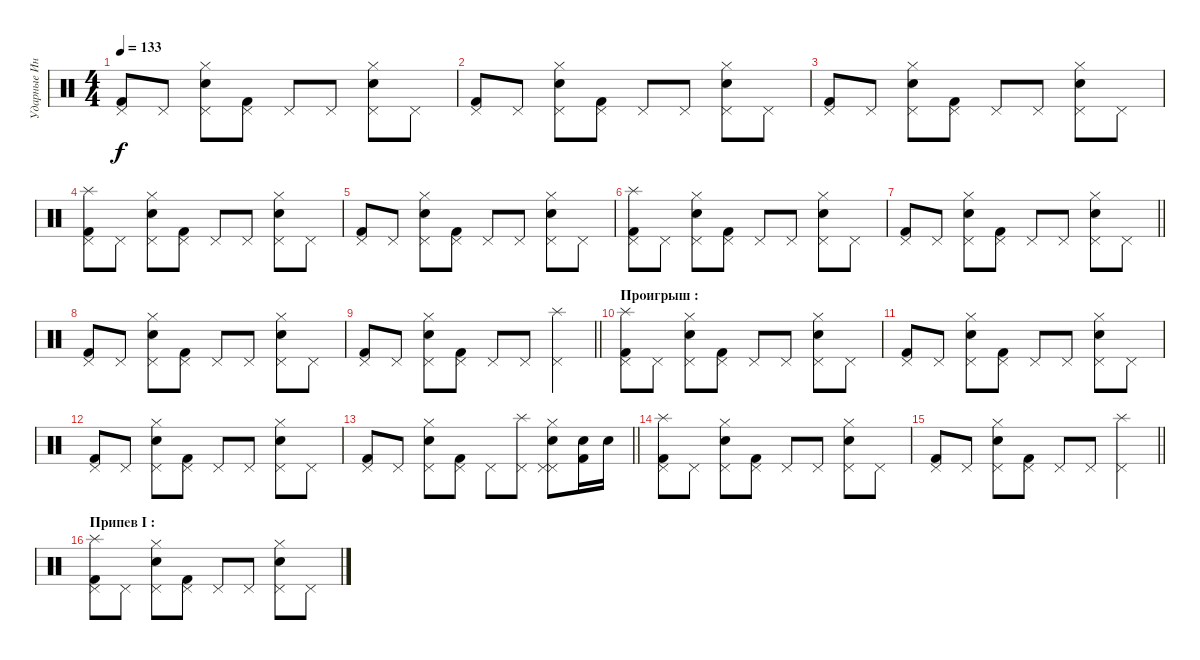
\track ("Ударные Инструменты" "Ударные Ин") {instrument percussion}
\staff {score}
\articulation defaults
\ts (4 4)
\tempo 133
\clef neutral
\ks c
("Pedal Hi-Hat (hit)" "Kick (hit) 2").8{dy f} "Pedal Hi-Hat (hit)".8 ("Electric Snare (hit)" "Pedal Hi-Hat (hit)" "Hi-Hat (closed)").8 ("Pedal Hi-Hat (hit)" "Kick (hit) 2").8 "Pedal Hi-Hat (hit)".8 "Pedal Hi-Hat (hit)".8 ("Electric Snare (hit)" "Pedal Hi-Hat (hit)" "Hi-Hat (closed)").8 "Pedal Hi-Hat (hit)".8 |
("Pedal Hi-Hat (hit)" "Kick (hit) 2").8 "Pedal Hi-Hat (hit)".8 ("Electric Snare (hit)" "Pedal Hi-Hat (hit)" "Hi-Hat (closed)").8 ("Pedal Hi-Hat (hit)" "Kick (hit) 2").8 "Pedal Hi-Hat (hit)".8 "Pedal Hi-Hat (hit)".8 ("Electric Snare (hit)" "Pedal Hi-Hat (hit)" "Hi-Hat (closed)").8 "Pedal Hi-Hat (hit)".8 |
("Pedal Hi-Hat (hit)" "Kick (hit) 2").8 "Pedal Hi-Hat (hit)".8 ("Electric Snare (hit)" "Pedal Hi-Hat (hit)" "Hi-Hat (closed)").8 ("Pedal Hi-Hat (hit)" "Kick (hit) 2").8 "Pedal Hi-Hat (hit)".8 "Pedal Hi-Hat (hit)".8 ("Electric Snare (hit)" "Pedal Hi-Hat (hit)" "Hi-Hat (closed)").8 "Pedal Hi-Hat (hit)".8 |
("Splash (hit)" "Pedal Hi-Hat (hit)" "Kick (hit) 2").8 "Pedal Hi-Hat (hit)".8 ("Electric Snare (hit)" "Pedal Hi-Hat (hit)" "Hi-Hat (closed)").8 ("Pedal Hi-Hat (hit)" "Kick (hit) 2").8 "Pedal Hi-Hat (hit)".8 "Pedal Hi-Hat (hit)".8 ("Electric Snare (hit)" "Pedal Hi-Hat (hit)" "Hi-Hat (closed)").8 "Pedal Hi-Hat (hit)".8 |
("Pedal Hi-Hat (hit)" "Kick (hit) 2").8 "Pedal Hi-Hat (hit)".8 ("Electric Snare (hit)" "Pedal Hi-Hat (hit)" "Hi-Hat (closed)").8 ("Pedal Hi-Hat (hit)" "Kick (hit) 2").8 "Pedal Hi-Hat (hit)".8 "Pedal Hi-Hat (hit)".8 ("Electric Snare (hit)" "Pedal Hi-Hat (hit)" "Hi-Hat (closed)").8 "Pedal Hi-Hat (hit)".8 |
("Splash (hit)" "Pedal Hi-Hat (hit)" "Kick (hit) 2").8 "Pedal Hi-Hat (hit)".8 ("Electric Snare (hit)" "Pedal Hi-Hat (hit)" "Hi-Hat (closed)").8 ("Pedal Hi-Hat (hit)" "Kick (hit) 2").8 "Pedal Hi-Hat (hit)".8 "Pedal Hi-Hat (hit)".8 ("Electric Snare (hit)" "Pedal Hi-Hat (hit)" "Hi-Hat (closed)").8 "Pedal Hi-Hat (hit)".8 |
\barLineRight lightlight
("Pedal Hi-Hat (hit)" "Kick (hit) 2").8 "Pedal Hi-Hat (hit)".8 ("Electric Snare (hit)" "Pedal Hi-Hat (hit)" "Hi-Hat (closed)").8 ("Pedal Hi-Hat (hit)" "Kick (hit) 2").8 "Pedal Hi-Hat (hit)".8 "Pedal Hi-Hat (hit)".8 ("Electric Snare (hit)" "Pedal Hi-Hat (hit)" "Hi-Hat (closed)").8 "Pedal Hi-Hat (hit)".8 |
("Pedal Hi-Hat (hit)" "Kick (hit) 2").8 "Pedal Hi-Hat (hit)".8 ("Electric Snare (hit)" "Pedal Hi-Hat (hit)" "Hi-Hat (closed)").8 ("Pedal Hi-Hat (hit)" "Kick (hit) 2").8 "Pedal Hi-Hat (hit)".8 "Pedal Hi-Hat (hit)".8 ("Electric Snare (hit)" "Pedal Hi-Hat (hit)" "Hi-Hat (closed)").8 "Pedal Hi-Hat (hit)".8 |
\barLineRight lightlight
("Pedal Hi-Hat (hit)" "Kick (hit) 2").8 "Pedal Hi-Hat (hit)".8 ("Electric Snare (hit)" "Pedal Hi-Hat (hit)" "Hi-Hat (closed)").8 ("Pedal Hi-Hat (hit)" "Kick (hit) 2").8 "Pedal Hi-Hat (hit)".8 "Pedal Hi-Hat (hit)".8 ("Splash (hit)" "Pedal Hi-Hat (hit)").4 |
\section ("" "Проигрыш :")
("Splash (hit)" "Pedal Hi-Hat (hit)" "Kick (hit) 2").8 "Pedal Hi-Hat (hit)".8 ("Electric Snare (hit)" "Pedal Hi-Hat (hit)" "Hi-Hat (closed)").8 ("Pedal Hi-Hat (hit)" "Kick (hit) 2").8 "Pedal Hi-Hat (hit)".8 "Pedal Hi-Hat (hit)".8 ("Electric Snare (hit)" "Pedal Hi-Hat (hit)" "Hi-Hat (closed)").8 "Pedal Hi-Hat (hit)".8 |
("Pedal Hi-Hat (hit)" "Kick (hit) 2").8 "Pedal Hi-Hat (hit)".8 ("Electric Snare (hit)" "Pedal Hi-Hat (hit)" "Hi-Hat (closed)").8 ("Pedal Hi-Hat (hit)" "Kick (hit) 2").8 "Pedal Hi-Hat (hit)".8 "Pedal Hi-Hat (hit)".8 ("Electric Snare (hit)" "Pedal Hi-Hat (hit)" "Hi-Hat (closed)").8 "Pedal Hi-Hat (hit)".8 |
("Pedal Hi-Hat (hit)" "Kick (hit) 2").8 "Pedal Hi-Hat (hit)".8 ("Electric Snare (hit)" "Pedal Hi-Hat (hit)" "Hi-Hat (closed)").8 ("Pedal Hi-Hat (hit)" "Kick (hit) 2").8 "Pedal Hi-Hat (hit)".8 "Pedal Hi-Hat (hit)".8 ("Electric Snare (hit)" "Pedal Hi-Hat (hit)" "Hi-Hat (closed)").8 "Pedal Hi-Hat (hit)".8 |
\barLineRight lightlight
("Pedal Hi-Hat (hit)" "Kick (hit) 2").8 "Pedal Hi-Hat (hit)".8 ("Electric Snare (hit)" "Pedal Hi-Hat (hit)" "Hi-Hat (closed)").8 ("Pedal Hi-Hat (hit)" "Kick (hit) 2").8 "Pedal Hi-Hat (hit)".8 ("Splash (hit)" "Pedal Hi-Hat (hit)").8 ("Electric Snare (hit)" "Pedal Hi-Hat (hit)" "Hi-Hat (closed)" "Pedal Hi-Hat (hit)").8 ("Snare (hit) 2" "Kick (hit) 2").16 "Snare (hit) 2".16 |
("Splash (hit)" "Pedal Hi-Hat (hit)" "Kick (hit) 2").8 "Pedal Hi-Hat (hit)".8 ("Electric Snare (hit)" "Pedal Hi-Hat (hit)" "Hi-Hat (closed)").8 ("Pedal Hi-Hat (hit)" "Kick (hit) 2").8 "Pedal Hi-Hat (hit)".8 "Pedal Hi-Hat (hit)".8 ("Electric Snare (hit)" "Pedal Hi-Hat (hit)" "Hi-Hat (closed)").8 "Pedal Hi-Hat (hit)".8 |
\barLineRight lightlight
("Pedal Hi-Hat (hit)" "Kick (hit) 2").8 "Pedal Hi-Hat (hit)".8 ("Electric Snare (hit)" "Pedal Hi-Hat (hit)" "Hi-Hat (closed)").8 ("Pedal Hi-Hat (hit)" "Kick (hit) 2").8 "Pedal Hi-Hat (hit)".8 "Pedal Hi-Hat (hit)".8 ("Splash (hit)" "Pedal Hi-Hat (hit)").4 |
\section ("" "Припев I :")
("Splash (hit)" "Pedal Hi-Hat (hit)" "Kick (hit) 2").8 "Pedal Hi-Hat (hit)".8 ("Electric Snare (hit)" "Pedal Hi-Hat (hit)" "Hi-Hat (closed)").8 ("Pedal Hi-Hat (hit)" "Kick (hit) 2").8 "Pedal Hi-Hat (hit)".8 "Pedal Hi-Hat (hit)".8 ("Electric Snare (hit)" "Pedal Hi-Hat (hit)" "Hi-Hat (closed)").8 "Pedal Hi-Hat (hit)".8
